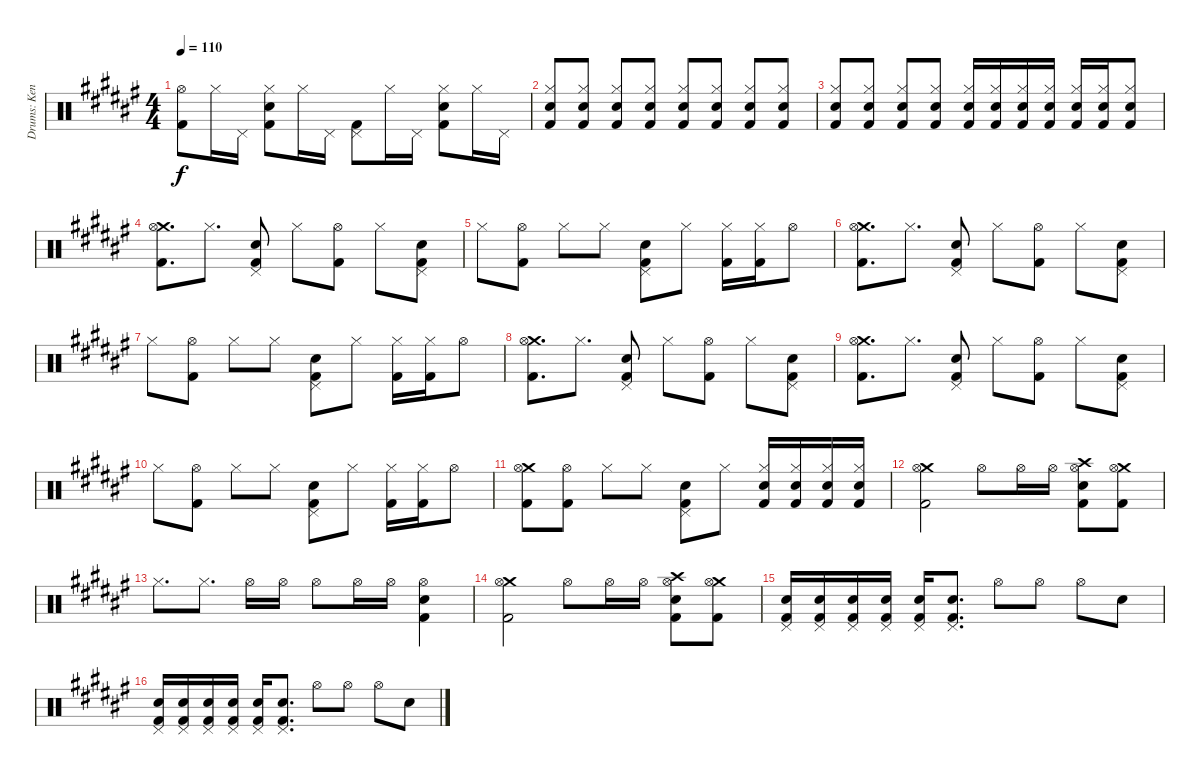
\track ("Drums: Kenny Aronoff" "Drums: Ken") {instrument percussion}
\staff {score}
\articulation defaults
\ts (4 4)
\tempo 110
\clef neutral
\ks f#
("Hi-Hat (open)" "Kick (hit) 2").8{dy f} "Hi-Hat (closed)".16 "Pedal Hi-Hat (hit)".16 ("Hi-Hat (closed)" "Snare (hit) 2" "Kick (hit) 2").8 "Hi-Hat (closed)".16 "Pedal Hi-Hat (hit)".16 ("Pedal Hi-Hat (hit)" "Kick (hit) 2").8 "Hi-Hat (closed)".16 "Pedal Hi-Hat (hit)".16 ("Hi-Hat (closed)" "Snare (hit) 2" "Kick (hit) 2").8 "Hi-Hat (closed)".16 "Pedal Hi-Hat (hit)".16 |
("Hi-Hat (closed)" "Snare (hit) 2" "Kick (hit) 2").8 ("Hi-Hat (closed)" "Snare (hit) 2" "Kick (hit) 2").8 ("Hi-Hat (closed)" "Snare (hit) 2" "Kick (hit) 2").8 ("Hi-Hat (closed)" "Snare (hit) 2" "Kick (hit) 2").8 ("Hi-Hat (closed)" "Snare (hit) 2" "Kick (hit) 2").8 ("Hi-Hat (closed)" "Snare (hit) 2" "Kick (hit) 2").8 ("Hi-Hat (closed)" "Snare (hit) 2" "Kick (hit) 2").8 ("Hi-Hat (closed)" "Snare (hit) 2" "Kick (hit) 2").8 |
("Hi-Hat (closed)" "Snare (hit) 2" "Kick (hit) 2").8 ("Hi-Hat (closed)" "Snare (hit) 2" "Kick (hit) 2").8 ("Hi-Hat (closed)" "Snare (hit) 2" "Kick (hit) 2").8 ("Hi-Hat (closed)" "Snare (hit) 2" "Kick (hit) 2").8 ("Hi-Hat (closed)" "Snare (hit) 2" "Kick (hit) 2").16 ("Hi-Hat (closed)" "Snare (hit) 2" "Kick (hit) 2").16 ("Hi-Hat (closed)" "Snare (hit) 2" "Kick (hit) 2").16 ("Hi-Hat (closed)" "Snare (hit) 2" "Kick (hit) 2").16 ("Hi-Hat (closed)" "Snare (hit) 2" "Kick (hit) 2").16 ("Hi-Hat (closed)" "Snare (hit) 2" "Kick (hit) 2").16 ("Hi-Hat (closed)" "Snare (hit) 2" "Kick (hit) 2").8 |
("Crash medium (hit)" "Hi-Hat (open)" "Kick (hit) 2").8{d} "Hi-Hat (closed)".8{d} ("Pedal Hi-Hat (hit)" "Snare (hit) 2" "Kick (hit) 2").8 "Hi-Hat (closed)".8 ("Hi-Hat (open)" "Kick (hit) 2").8 "Hi-Hat (closed)".8 ("Pedal Hi-Hat (hit)" "Snare (hit) 2" "Kick (hit) 2").8 |
"Hi-Hat (closed)".8 ("Hi-Hat (open)" "Kick (hit) 2").8 "Hi-Hat (closed)".8 "Hi-Hat (closed)".8 ("Pedal Hi-Hat (hit)" "Snare (hit) 2" "Kick (hit) 2").8 "Hi-Hat (closed)".8 ("Hi-Hat (closed)" "Kick (hit) 2").16 ("Hi-Hat (closed)" "Kick (hit) 2").16 "Hi-Hat (open)".8 |
("Crash medium (hit)" "Hi-Hat (open)" "Kick (hit) 2").8{d} "Hi-Hat (closed)".8{d} ("Pedal Hi-Hat (hit)" "Snare (hit) 2" "Kick (hit) 2").8 "Hi-Hat (closed)".8 ("Hi-Hat (open)" "Kick (hit) 2").8 "Hi-Hat (closed)".8 ("Pedal Hi-Hat (hit)" "Snare (hit) 2" "Kick (hit) 2").8 |
"Hi-Hat (closed)".8 ("Hi-Hat (open)" "Kick (hit) 2").8 "Hi-Hat (closed)".8 "Hi-Hat (closed)".8 ("Pedal Hi-Hat (hit)" "Snare (hit) 2" "Kick (hit) 2").8 "Hi-Hat (closed)".8 ("Hi-Hat (closed)" "Kick (hit) 2").16 ("Hi-Hat (closed)" "Kick (hit) 2").16 "Hi-Hat (open)".8 |
("Crash medium (hit)" "Hi-Hat (open)" "Kick (hit) 2").8{d} "Hi-Hat (closed)".8{d} ("Pedal Hi-Hat (hit)" "Snare (hit) 2" "Kick (hit) 2").8 "Hi-Hat (closed)".8 ("Hi-Hat (open)" "Kick (hit) 2").8 "Hi-Hat (closed)".8 ("Pedal Hi-Hat (hit)" "Snare (hit) 2" "Kick (hit) 2").8 |
("Crash medium (hit)" "Hi-Hat (open)" "Kick (hit) 2").8{d} "Hi-Hat (closed)".8{d} ("Pedal Hi-Hat (hit)" "Snare (hit) 2" "Kick (hit) 2").8 "Hi-Hat (closed)".8 ("Hi-Hat (open)" "Kick (hit) 2").8 "Hi-Hat (closed)".8 ("Pedal Hi-Hat (hit)" "Snare (hit) 2" "Kick (hit) 2").8 |
"Hi-Hat (closed)".8 ("Hi-Hat (open)" "Kick (hit) 2").8 "Hi-Hat (closed)".8 "Hi-Hat (closed)".8 ("Pedal Hi-Hat (hit)" "Snare (hit) 2" "Kick (hit) 2").8 "Hi-Hat (closed)".8 ("Hi-Hat (closed)" "Kick (hit) 2").16 ("Hi-Hat (closed)" "Kick (hit) 2").16 "Hi-Hat (open)".8 |
("Crash medium (hit)" "Hi-Hat (open)" "Kick (hit) 2").8 ("Hi-Hat (open)" "Kick (hit) 2").8 "Hi-Hat (closed)".8 "Hi-Hat (closed)".8 ("Pedal Hi-Hat (hit)" "Snare (hit) 2" "Kick (hit) 2").8 "Hi-Hat (closed)".8 ("Hi-Hat (closed)" "Snare (hit) 2" "Kick (hit) 2").16 ("Hi-Hat (closed)" "Snare (hit) 2" "Kick (hit) 2").16 ("Hi-Hat (closed)" "Snare (hit) 2" "Kick (hit) 2").16 ("Hi-Hat (closed)" "Snare (hit) 2" "Kick (hit) 2").16 |
("Crash medium (hit)" "Hi-Hat (open)" "Kick (hit) 2").2 "Hi-Hat (open)".8 "Hi-Hat (open)".16 "Hi-Hat (open)".16 ("Crash high (hit)" "Hi-Hat (open)" "Electric Snare (hit)" "Kick (hit) 2").8 ("Crash medium (hit)" "Hi-Hat (open)" "Kick (hit) 2").8 |
"Hi-Hat (closed)".8{d} "Hi-Hat (closed)".8{d} "Hi-Hat (open)".16 "Hi-Hat (open)".16 "Hi-Hat (open)".8 "Hi-Hat (open)".16 "Hi-Hat (open)".16 ("Hi-Hat (open)" "Electric Snare (hit)" "Kick (hit) 2").4 |
("Crash medium (hit)" "Hi-Hat (open)" "Kick (hit) 2").2 "Hi-Hat (open)".8 "Hi-Hat (open)".16 "Hi-Hat (open)".16 ("Crash high (hit)" "Hi-Hat (open)" "Electric Snare (hit)" "Kick (hit) 2").8 ("Crash medium (hit)" "Hi-Hat (open)" "Kick (hit) 2").8 |
("Pedal Hi-Hat (hit)" "Snare (hit) 2" "Kick (hit) 2").16 ("Pedal Hi-Hat (hit)" "Snare (hit) 2" "Kick (hit) 2").16 ("Pedal Hi-Hat (hit)" "Snare (hit) 2" "Kick (hit) 2").16 ("Pedal Hi-Hat (hit)" "Snare (hit) 2" "Kick (hit) 2").16 ("Pedal Hi-Hat (hit)" "Snare (hit) 2" "Kick (hit) 2").16 ("Pedal Hi-Hat (hit)" "Snare (hit) 2" "Kick (hit) 2").8{d} "Hi-Hat (open)".8 "Hi-Hat (open)".8 "Hi-Hat (open)".8 "Snare (hit) 2".8 |
("Pedal Hi-Hat (hit)" "Snare (hit) 2" "Kick (hit) 2").16 ("Pedal Hi-Hat (hit)" "Snare (hit) 2" "Kick (hit) 2").16 ("Pedal Hi-Hat (hit)" "Snare (hit) 2" "Kick (hit) 2").16 ("Pedal Hi-Hat (hit)" "Snare (hit) 2" "Kick (hit) 2").16 ("Pedal Hi-Hat (hit)" "Snare (hit) 2" "Kick (hit) 2").16 ("Pedal Hi-Hat (hit)" "Snare (hit) 2" "Kick (hit) 2").8{d} "Hi-Hat (open)".8 "Hi-Hat (open)".8 "Hi-Hat (open)".8 "Snare (hit) 2".8
